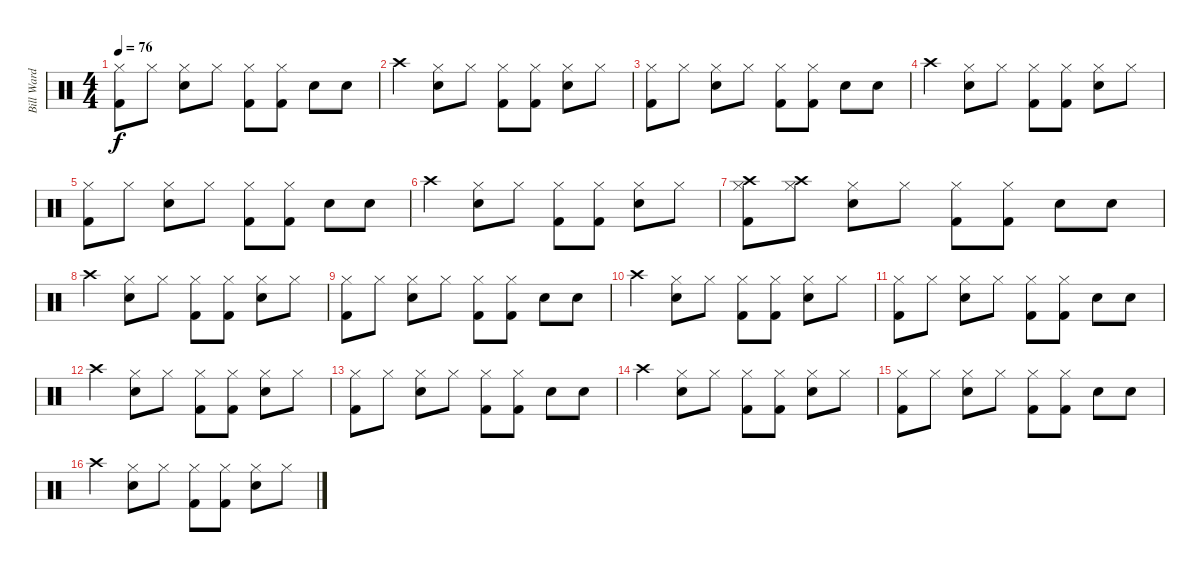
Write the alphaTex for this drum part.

\track ("Bill Ward" "Bill Ward") {instrument percussion}
\staff {score}
\articulation defaults
\ts (4 4)
\tempo 76
\clef neutral
\ks c
("Kick (hit) 2" "Hi-Hat (closed)").8{dy f} "Hi-Hat (closed)".8 ("Snare (hit) 2" "Hi-Hat (closed)").8 "Hi-Hat (closed)".8 ("Kick (hit) 2" "Hi-Hat (closed)").8 ("Kick (hit) 2" "Hi-Hat (closed)").8 "Snare (hit) 2".8 "Snare (hit) 2".8 |
"Crash high (hit)".4 ("Snare (hit) 2" "Hi-Hat (closed)").8 "Hi-Hat (closed)".8 ("Kick (hit) 2" "Hi-Hat (closed)").8 ("Kick (hit) 2" "Hi-Hat (closed)").8 ("Snare (hit) 2" "Hi-Hat (closed)").8 "Hi-Hat (closed)".8 |
("Kick (hit) 2" "Hi-Hat (closed)").8 "Hi-Hat (closed)".8 ("Snare (hit) 2" "Hi-Hat (closed)").8 "Hi-Hat (closed)".8 ("Kick (hit) 2" "Hi-Hat (closed)").8 ("Kick (hit) 2" "Hi-Hat (closed)").8 "Snare (hit) 2".8 "Snare (hit) 2".8 |
"Crash high (hit)".4 ("Snare (hit) 2" "Hi-Hat (closed)").8 "Hi-Hat (closed)".8 ("Kick (hit) 2" "Hi-Hat (closed)").8 ("Kick (hit) 2" "Hi-Hat (closed)").8 ("Snare (hit) 2" "Hi-Hat (closed)").8 "Hi-Hat (closed)".8 |
("Kick (hit) 2" "Hi-Hat (closed)").8 "Hi-Hat (closed)".8 ("Snare (hit) 2" "Hi-Hat (closed)").8 "Hi-Hat (closed)".8 ("Kick (hit) 2" "Hi-Hat (closed)").8 ("Kick (hit) 2" "Hi-Hat (closed)").8 "Snare (hit) 2".8 "Snare (hit) 2".8 |
"Crash high (hit)".4 ("Snare (hit) 2" "Hi-Hat (closed)").8 "Hi-Hat (closed)".8 ("Kick (hit) 2" "Hi-Hat (closed)").8 ("Kick (hit) 2" "Hi-Hat (closed)").8 ("Snare (hit) 2" "Hi-Hat (closed)").8 "Hi-Hat (closed)".8 |
("Crash high (hit)" "Kick (hit) 2" "Hi-Hat (closed)").8 ("Crash high (hit)" "Hi-Hat (closed)").8 ("Snare (hit) 2" "Hi-Hat (closed)").8 "Hi-Hat (closed)".8 ("Kick (hit) 2" "Hi-Hat (closed)").8 ("Kick (hit) 2" "Hi-Hat (closed)").8 "Snare (hit) 2".8 "Snare (hit) 2".8 |
"Crash high (hit)".4 ("Snare (hit) 2" "Hi-Hat (closed)").8 "Hi-Hat (closed)".8 ("Kick (hit) 2" "Hi-Hat (closed)").8 ("Kick (hit) 2" "Hi-Hat (closed)").8 ("Snare (hit) 2" "Hi-Hat (closed)").8 "Hi-Hat (closed)".8 |
("Kick (hit) 2" "Hi-Hat (closed)").8 "Hi-Hat (closed)".8 ("Snare (hit) 2" "Hi-Hat (closed)").8 "Hi-Hat (closed)".8 ("Kick (hit) 2" "Hi-Hat (closed)").8 ("Kick (hit) 2" "Hi-Hat (closed)").8 "Snare (hit) 2".8 "Snare (hit) 2".8 |
"Crash high (hit)".4 ("Snare (hit) 2" "Hi-Hat (closed)").8 "Hi-Hat (closed)".8 ("Kick (hit) 2" "Hi-Hat (closed)").8 ("Kick (hit) 2" "Hi-Hat (closed)").8 ("Snare (hit) 2" "Hi-Hat (closed)").8 "Hi-Hat (closed)".8 |
("Kick (hit) 2" "Hi-Hat (closed)").8 "Hi-Hat (closed)".8 ("Snare (hit) 2" "Hi-Hat (closed)").8 "Hi-Hat (closed)".8 ("Kick (hit) 2" "Hi-Hat (closed)").8 ("Kick (hit) 2" "Hi-Hat (closed)").8 "Snare (hit) 2".8 "Snare (hit) 2".8 |
"Crash high (hit)".4 ("Snare (hit) 2" "Hi-Hat (closed)").8 "Hi-Hat (closed)".8 ("Kick (hit) 2" "Hi-Hat (closed)").8 ("Kick (hit) 2" "Hi-Hat (closed)").8 ("Snare (hit) 2" "Hi-Hat (closed)").8 "Hi-Hat (closed)".8 |
("Kick (hit) 2" "Hi-Hat (closed)").8 "Hi-Hat (closed)".8 ("Snare (hit) 2" "Hi-Hat (closed)").8 "Hi-Hat (closed)".8 ("Kick (hit) 2" "Hi-Hat (closed)").8 ("Kick (hit) 2" "Hi-Hat (closed)").8 "Snare (hit) 2".8 "Snare (hit) 2".8 |
"Crash high (hit)".4 ("Snare (hit) 2" "Hi-Hat (closed)").8 "Hi-Hat (closed)".8 ("Kick (hit) 2" "Hi-Hat (closed)").8 ("Kick (hit) 2" "Hi-Hat (closed)").8 ("Snare (hit) 2" "Hi-Hat (closed)").8 "Hi-Hat (closed)".8 |
("Kick (hit) 2" "Hi-Hat (closed)").8 "Hi-Hat (closed)".8 ("Snare (hit) 2" "Hi-Hat (closed)").8 "Hi-Hat (closed)".8 ("Kick (hit) 2" "Hi-Hat (closed)").8 ("Kick (hit) 2" "Hi-Hat (closed)").8 "Snare (hit) 2".8 "Snare (hit) 2".8 |
"Crash high (hit)".4 ("Snare (hit) 2" "Hi-Hat (closed)").8 "Hi-Hat (closed)".8 ("Kick (hit) 2" "Hi-Hat (closed)").8 ("Kick (hit) 2" "Hi-Hat (closed)").8 ("Snare (hit) 2" "Hi-Hat (closed)").8 "Hi-Hat (closed)".8
